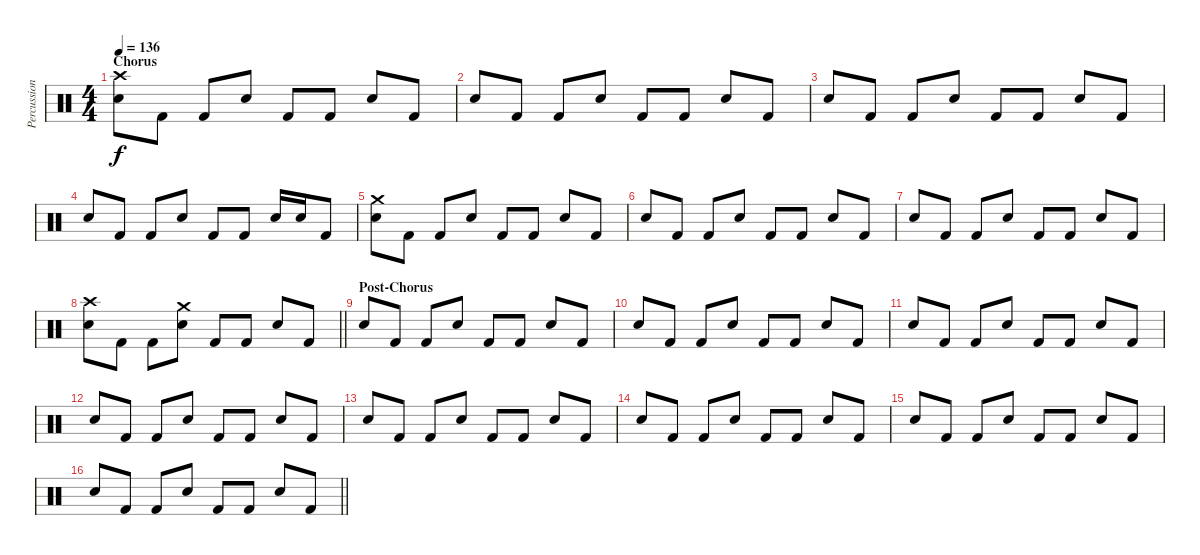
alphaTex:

\track ("Percussion" "Percussion") {instrument percussion}
\staff {score}
\articulation defaults
\ts (4 4)
\section ("" "Chorus")
\tempo 136
\clef neutral
\ks c
("Crash high (hit)" "Snare (hit) 2").8{dy f} "Kick (hit) 2".8 "Kick (hit) 2".8 "Snare (hit) 2".8 "Kick (hit) 2".8 "Kick (hit) 2".8 "Snare (hit) 2".8 "Kick (hit) 2".8 |
"Snare (hit) 2".8 "Kick (hit) 2".8 "Kick (hit) 2".8 "Snare (hit) 2".8 "Kick (hit) 2".8 "Kick (hit) 2".8 "Snare (hit) 2".8 "Kick (hit) 2".8 |
"Snare (hit) 2".8 "Kick (hit) 2".8 "Kick (hit) 2".8 "Snare (hit) 2".8 "Kick (hit) 2".8 "Kick (hit) 2".8 "Snare (hit) 2".8 "Kick (hit) 2".8 |
"Snare (hit) 2".8 "Kick (hit) 2".8 "Kick (hit) 2".8 "Snare (hit) 2".8 "Kick (hit) 2".8 "Kick (hit) 2".8 "Snare (hit) 2".16 "Snare (hit) 2".16 "Kick (hit) 2".8 |
("Crash medium (hit)" "Snare (hit) 2").8 "Kick (hit) 2".8 "Kick (hit) 2".8 "Snare (hit) 2".8 "Kick (hit) 2".8 "Kick (hit) 2".8 "Snare (hit) 2".8 "Kick (hit) 2".8 |
"Snare (hit) 2".8 "Kick (hit) 2".8 "Kick (hit) 2".8 "Snare (hit) 2".8 "Kick (hit) 2".8 "Kick (hit) 2".8 "Snare (hit) 2".8 "Kick (hit) 2".8 |
"Snare (hit) 2".8 "Kick (hit) 2".8 "Kick (hit) 2".8 "Snare (hit) 2".8 "Kick (hit) 2".8 "Kick (hit) 2".8 "Snare (hit) 2".8 "Kick (hit) 2".8 |
\barLineRight lightlight
("Crash high (hit)" "Snare (hit) 2").8 "Kick (hit) 2".8 "Kick (hit) 2".8 ("Crash medium (hit)" "Snare (hit) 2").8 "Kick (hit) 2".8 "Kick (hit) 2".8 "Snare (hit) 2".8 "Kick (hit) 2".8 |
\section ("" "Post-Chorus")
"Snare (hit) 2".8 "Kick (hit) 2".8 "Kick (hit) 2".8 "Snare (hit) 2".8 "Kick (hit) 2".8 "Kick (hit) 2".8 "Snare (hit) 2".8 "Kick (hit) 2".8 |
"Snare (hit) 2".8 "Kick (hit) 2".8 "Kick (hit) 2".8 "Snare (hit) 2".8 "Kick (hit) 2".8 "Kick (hit) 2".8 "Snare (hit) 2".8 "Kick (hit) 2".8 |
"Snare (hit) 2".8 "Kick (hit) 2".8 "Kick (hit) 2".8 "Snare (hit) 2".8 "Kick (hit) 2".8 "Kick (hit) 2".8 "Snare (hit) 2".8 "Kick (hit) 2".8 |
"Snare (hit) 2".8 "Kick (hit) 2".8 "Kick (hit) 2".8 "Snare (hit) 2".8 "Kick (hit) 2".8 "Kick (hit) 2".8 "Snare (hit) 2".8 "Kick (hit) 2".8 |
"Snare (hit) 2".8 "Kick (hit) 2".8 "Kick (hit) 2".8 "Snare (hit) 2".8 "Kick (hit) 2".8 "Kick (hit) 2".8 "Snare (hit) 2".8 "Kick (hit) 2".8 |
"Snare (hit) 2".8 "Kick (hit) 2".8 "Kick (hit) 2".8 "Snare (hit) 2".8 "Kick (hit) 2".8 "Kick (hit) 2".8 "Snare (hit) 2".8 "Kick (hit) 2".8 |
"Snare (hit) 2".8 "Kick (hit) 2".8 "Kick (hit) 2".8 "Snare (hit) 2".8 "Kick (hit) 2".8 "Kick (hit) 2".8 "Snare (hit) 2".8 "Kick (hit) 2".8 |
\barLineRight lightlight "Snare (hit) 2".8 "Kick (hit) 2".8 "Kick (hit) 2".8 "Snare (hit) 2".8 "Kick (hit) 2".8 "Kick (hit) 2".8 "Snare (hit) 2".8 "Kick (hit) 2".8
